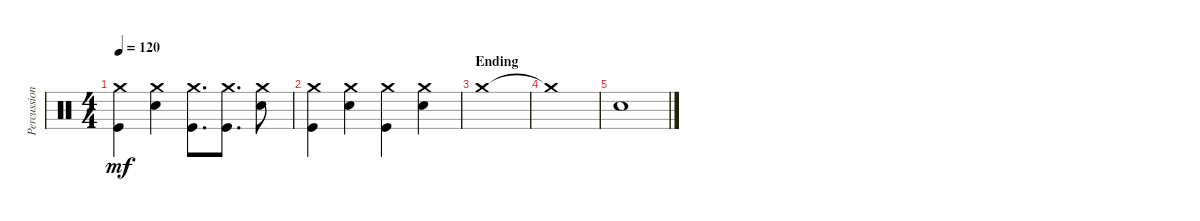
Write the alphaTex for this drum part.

\track ("Percussion" "Percussion") {instrument percussion}
\staff {score}
\articulation defaults
\ts (4 4)
\tempo 120
\clef neutral
\ks c
("Crash medium (hit)" "Kick (hit)").4{dy mf} ("Crash medium (hit)" "Snare (hit) 2").4 ("Crash medium (hit)" "Kick (hit)").8{d} ("Crash medium (hit)" "Kick (hit)").8{d} ("Crash medium (hit)" "Snare (hit) 2").8 |
("Crash medium (hit)" "Kick (hit)").4 ("Crash medium (hit)" "Snare (hit) 2").4 ("Crash medium (hit)" "Kick (hit)").4 ("Crash medium (hit)" "Snare (hit) 2").4 |
\section ("" "Ending")
"Crash medium (hit)".1 |
"Crash medium (hit)"{t}.1 |
"Snare (hit) 2".1
